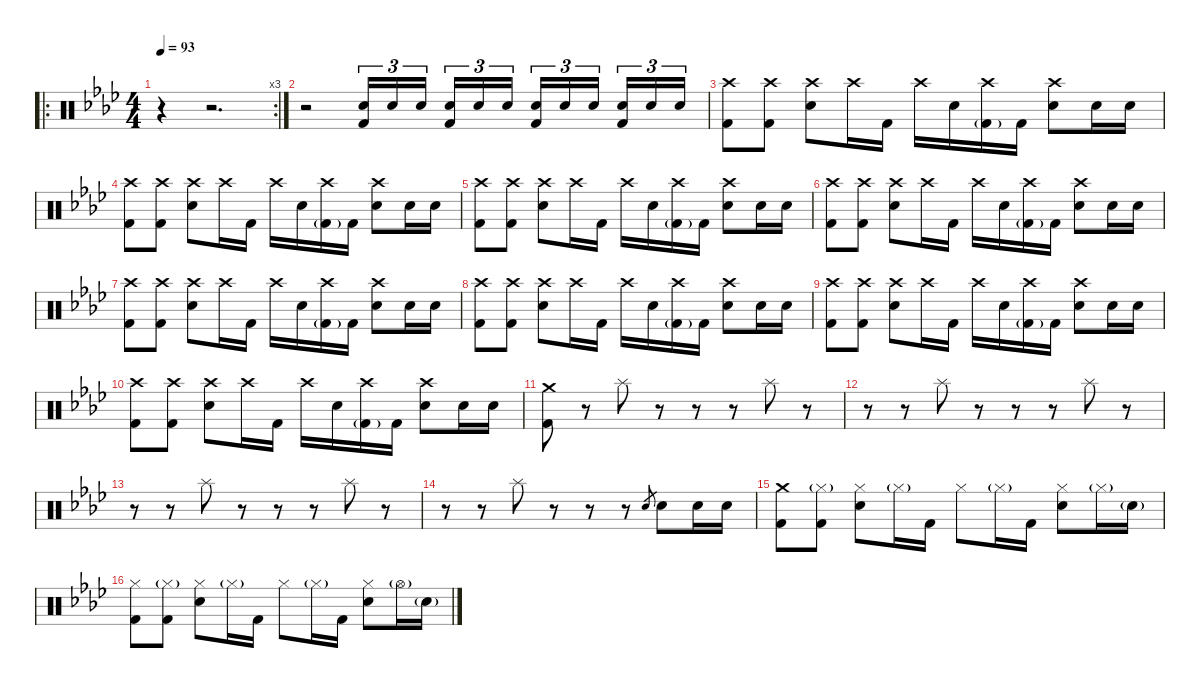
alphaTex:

\defaultSystemsLayout 4
\hideDynamics
\bracketExtendMode nobrackets
\singleTrackTrackNamePolicy hidden
\multiTrackTrackNamePolicy hidden
\firstSystemTrackNameMode fullname
\firstSystemTrackNameOrientation horizontal
\otherSystemsTrackNameOrientation horizontal
\track ("Drums" "drm.") {instrument percussion}
\staff {score}
\articulation defaults
\ro
\rc 3
\ts (4 4)
\beaming (8 2 2 2 2)
\tempo 93
\clef neutral
\ks ab
r.4{dy f beam Down} r.2{d beam Down} |
r.2{beam Down} ("Snare (hit) 2"{acc forcenatural} "Kick (hit) 2"{acc forcenatural}).16{tu (3 2) beam Up} "Snare (hit) 2"{acc forcenatural}.16{tu (3 2) beam Up} "Snare (hit) 2"{acc forcenatural}.16{tu (3 2) beam Up} ("Snare (hit) 2"{acc forcenatural} "Kick (hit) 2"{acc forcenatural}).16{tu (3 2) beam Up} "Snare (hit) 2"{acc forcenatural}.16{tu (3 2) beam Up} "Snare (hit) 2"{acc forcenatural}.16{tu (3 2) beam Up} ("Snare (hit) 2"{acc forcenatural} "Kick (hit) 2"{acc forcenatural}).16{tu (3 2) beam Up} "Snare (hit) 2"{acc forcenatural}.16{tu (3 2) beam Up} "Snare (hit) 2"{acc forcenatural}.16{tu (3 2) beam Up} ("Snare (hit) 2"{acc forcenatural} "Kick (hit) 2"{acc forcenatural}).16{tu (3 2) beam Up} "Snare (hit) 2"{acc forcenatural}.16{tu (3 2) beam Up} "Snare (hit) 2"{acc forcenatural}.16{tu (3 2) beam Up} |
("Crash high (hit)"{acc forcenatural} "Kick (hit) 2"{acc forcenatural}).8{beam Down} ("Crash high (hit)"{acc forcenatural} "Kick (hit) 2"{acc forcenatural}).8{beam Down} ("Crash high (hit)"{acc forcenatural} "Snare (hit) 2"{acc forcenatural}).8{beam Down} "Crash high (hit)"{acc forcenatural}.16{beam Down} "Kick (hit) 2"{acc forcenatural}.16{beam Down} "Crash high (hit)"{acc forcenatural}.16{beam Down} "Snare (hit) 2"{acc forcenatural}.16{beam Down} ("Crash high (hit)"{acc forcenatural} "Kick (hit) 2"{g acc forcenatural}).16{beam Down} "Kick (hit) 2"{acc forcenatural}.16{beam Down} ("Crash high (hit)"{acc forcenatural} "Snare (hit) 2"{acc forcenatural}).8{beam Down} "Snare (hit) 2"{acc forcenatural}.16{beam Down} "Snare (hit) 2"{acc forcenatural}.16{beam Down} |
("Crash high (hit)"{acc forcenatural} "Kick (hit) 2"{acc forcenatural}).8{beam Down} ("Crash high (hit)"{acc forcenatural} "Kick (hit) 2"{acc forcenatural}).8{beam Down} ("Crash high (hit)"{acc forcenatural} "Snare (hit) 2"{acc forcenatural}).8{beam Down} "Crash high (hit)"{acc forcenatural}.16{beam Down} "Kick (hit) 2"{acc forcenatural}.16{beam Down} "Crash high (hit)"{acc forcenatural}.16{beam Down} "Snare (hit) 2"{acc forcenatural}.16{beam Down} ("Crash high (hit)"{acc forcenatural} "Kick (hit) 2"{g acc forcenatural}).16{beam Down} "Kick (hit) 2"{acc forcenatural}.16{beam Down} ("Crash high (hit)"{acc forcenatural} "Snare (hit) 2"{acc forcenatural}).8{beam Down} "Snare (hit) 2"{acc forcenatural}.16{beam Down} "Snare (hit) 2"{acc forcenatural}.16{beam Down} |
("Crash high (hit)"{acc forcenatural} "Kick (hit) 2"{acc forcenatural}).8{beam Down} ("Crash high (hit)"{acc forcenatural} "Kick (hit) 2"{acc forcenatural}).8{beam Down} ("Crash high (hit)"{acc forcenatural} "Snare (hit) 2"{acc forcenatural}).8{beam Down} "Crash high (hit)"{acc forcenatural}.16{beam Down} "Kick (hit) 2"{acc forcenatural}.16{beam Down} "Crash high (hit)"{acc forcenatural}.16{beam Down} "Snare (hit) 2"{acc forcenatural}.16{beam Down} ("Crash high (hit)"{acc forcenatural} "Kick (hit) 2"{g acc forcenatural}).16{beam Down} "Kick (hit) 2"{acc forcenatural}.16{beam Down} ("Crash high (hit)"{acc forcenatural} "Snare (hit) 2"{acc forcenatural}).8{beam Down} "Snare (hit) 2"{acc forcenatural}.16{beam Down} "Snare (hit) 2"{acc forcenatural}.16{beam Down} |
("Crash high (hit)"{acc forcenatural} "Kick (hit) 2"{acc forcenatural}).8{beam Down} ("Crash high (hit)"{acc forcenatural} "Kick (hit) 2"{acc forcenatural}).8{beam Down} ("Crash high (hit)"{acc forcenatural} "Snare (hit) 2"{acc forcenatural}).8{beam Down} "Crash high (hit)"{acc forcenatural}.16{beam Down} "Kick (hit) 2"{acc forcenatural}.16{beam Down} "Crash high (hit)"{acc forcenatural}.16{beam Down} "Snare (hit) 2"{acc forcenatural}.16{beam Down} ("Crash high (hit)"{acc forcenatural} "Kick (hit) 2"{g acc forcenatural}).16{beam Down} "Kick (hit) 2"{acc forcenatural}.16{beam Down} ("Crash high (hit)"{acc forcenatural} "Snare (hit) 2"{acc forcenatural}).8{beam Down} "Snare (hit) 2"{acc forcenatural}.16{beam Down} "Snare (hit) 2"{acc forcenatural}.16{beam Down} |
("Crash high (hit)"{acc forcenatural} "Kick (hit) 2"{acc forcenatural}).8{beam Down} ("Crash high (hit)"{acc forcenatural} "Kick (hit) 2"{acc forcenatural}).8{beam Down} ("Crash high (hit)"{acc forcenatural} "Snare (hit) 2"{acc forcenatural}).8{beam Down} "Crash high (hit)"{acc forcenatural}.16{beam Down} "Kick (hit) 2"{acc forcenatural}.16{beam Down} "Crash high (hit)"{acc forcenatural}.16{beam Down} "Snare (hit) 2"{acc forcenatural}.16{beam Down} ("Crash high (hit)"{acc forcenatural} "Kick (hit) 2"{g acc forcenatural}).16{beam Down} "Kick (hit) 2"{acc forcenatural}.16{beam Down} ("Crash high (hit)"{acc forcenatural} "Snare (hit) 2"{acc forcenatural}).8{beam Down} "Snare (hit) 2"{acc forcenatural}.16{beam Down} "Snare (hit) 2"{acc forcenatural}.16{beam Down} |
("Crash high (hit)"{acc forcenatural} "Kick (hit) 2"{acc forcenatural}).8{beam Down} ("Crash high (hit)"{acc forcenatural} "Kick (hit) 2"{acc forcenatural}).8{beam Down} ("Crash high (hit)"{acc forcenatural} "Snare (hit) 2"{acc forcenatural}).8{beam Down} "Crash high (hit)"{acc forcenatural}.16{beam Down} "Kick (hit) 2"{acc forcenatural}.16{beam Down} "Crash high (hit)"{acc forcenatural}.16{beam Down} "Snare (hit) 2"{acc forcenatural}.16{beam Down} ("Crash high (hit)"{acc forcenatural} "Kick (hit) 2"{g acc forcenatural}).16{beam Down} "Kick (hit) 2"{acc forcenatural}.16{beam Down} ("Crash high (hit)"{acc forcenatural} "Snare (hit) 2"{acc forcenatural}).8{beam Down} "Snare (hit) 2"{acc forcenatural}.16{beam Down} "Snare (hit) 2"{acc forcenatural}.16{beam Down} |
("Crash high (hit)"{acc forcenatural} "Kick (hit) 2"{acc forcenatural}).8{beam Down} ("Crash high (hit)"{acc forcenatural} "Kick (hit) 2"{acc forcenatural}).8{beam Down} ("Crash high (hit)"{acc forcenatural} "Snare (hit) 2"{acc forcenatural}).8{beam Down} "Crash high (hit)"{acc forcenatural}.16{beam Down} "Kick (hit) 2"{acc forcenatural}.16{beam Down} "Crash high (hit)"{acc forcenatural}.16{beam Down} "Snare (hit) 2"{acc forcenatural}.16{beam Down} ("Crash high (hit)"{acc forcenatural} "Kick (hit) 2"{g acc forcenatural}).16{beam Down} "Kick (hit) 2"{acc forcenatural}.16{beam Down} ("Crash high (hit)"{acc forcenatural} "Snare (hit) 2"{acc forcenatural}).8{beam Down} "Snare (hit) 2"{acc forcenatural}.16{beam Down} "Snare (hit) 2"{acc forcenatural}.16{beam Down} |
("Crash high (hit)"{acc forcenatural} "Kick (hit) 2"{acc forcenatural}).8{beam Down} ("Crash high (hit)"{acc forcenatural} "Kick (hit) 2"{acc forcenatural}).8{beam Down} ("Crash high (hit)"{acc forcenatural} "Snare (hit) 2"{acc forcenatural}).8{beam Down} "Crash high (hit)"{acc forcenatural}.16{beam Down} "Kick (hit) 2"{acc forcenatural}.16{beam Down} "Crash high (hit)"{acc forcenatural}.16{beam Down} "Snare (hit) 2"{acc forcenatural}.16{beam Down} ("Crash high (hit)"{acc forcenatural} "Kick (hit) 2"{g acc forcenatural}).16{beam Down} "Kick (hit) 2"{acc forcenatural}.16{beam Down} ("Crash high (hit)"{acc forcenatural} "Snare (hit) 2"{acc forcenatural}).8{beam Down} "Snare (hit) 2"{acc forcenatural}.16{beam Down} "Snare (hit) 2"{acc forcenatural}.16{beam Down} |
("Crash medium (hit)"{acc forcenatural} "Kick (hit) 2"{acc forcenatural}).8{beam Down} r.8{beam Down} "Splash (hit)"{acc forcenatural}.8{beam Down} r.8{beam Down} r.8{beam Down} r.8{beam Down} "Splash (hit)"{acc forcenatural}.8{beam Down} r.8{beam Down} |
r.8{beam Down} r.8{beam Down} "Splash (hit)"{acc forcenatural}.8{beam Down} r.8{beam Down} r.8{beam Down} r.8{beam Down} "Splash (hit)"{acc forcenatural}.8{beam Down} r.8{beam Down} |
r.8{beam Down} r.8{beam Down} "Splash (hit)"{acc forcenatural}.8{beam Down} r.8{beam Down} r.8{beam Down} r.8{beam Down} "Splash (hit)"{acc forcenatural}.8{beam Down} r.8{beam Down} |
r.8{beam Down} r.8{beam Down} "Splash (hit)"{acc forcenatural}.8{beam Down} r.8{beam Down} r.8{beam Down} r.8{beam Down} "Electric Snare (hit)"{acc forcenatural}.8{gr dy mf beam Up} "Snare (hit) 2"{acc forcenatural}.8{dy f beam Down} "Snare (hit) 2"{acc forcenatural}.16{beam Down} "Snare (hit) 2"{acc forcenatural}.16{beam Down} |
("Crash medium (hit)"{acc forcenatural} "Kick (hit) 2"{acc forcenatural}).8{beam Down} ("Hi-Hat (closed)"{g acc forcenatural} "Kick (hit) 2"{acc forcenatural}).8{beam Down} ("Hi-Hat (closed)"{acc forcenatural} "Snare (hit) 2"{acc forcenatural}).8{beam Down} "Hi-Hat (closed)"{g acc forcenatural}.16{dy mf beam Down} "Kick (hit) 2"{acc forcenatural}.16{dy f beam Down} "Hi-Hat (closed)"{acc forcenatural}.8{beam Down} "Hi-Hat (closed)"{g acc forcenatural}.16{dy mf beam Down} "Kick (hit) 2"{acc forcenatural}.16{dy f beam Down} ("Hi-Hat (closed)"{acc forcenatural} "Snare (hit) 2"{acc forcenatural}).8{beam Down} "Hi-Hat (closed)"{g acc forcenatural}.16{dy mf beam Down} "Snare (hit) 2"{g acc forcenatural}.16{beam Down} |
("Hi-Hat (closed)"{acc forcenatural} "Kick (hit) 2"{acc forcenatural}).8{dy f beam Down} ("Hi-Hat (closed)"{g acc forcenatural} "Kick (hit) 2"{acc forcenatural}).8{beam Down} ("Hi-Hat (closed)"{acc forcenatural} "Snare (hit) 2"{acc forcenatural}).8{beam Down} "Hi-Hat (closed)"{g acc forcenatural}.16{dy mf beam Down} "Kick (hit) 2"{acc forcenatural}.16{dy f beam Down} "Hi-Hat (closed)"{acc forcenatural}.8{beam Down} "Hi-Hat (closed)"{g acc forcenatural}.16{dy mf beam Down} "Kick (hit) 2"{acc forcenatural}.16{dy f beam Down} ("Hi-Hat (closed)"{acc forcenatural} "Snare (hit) 2"{acc forcenatural}).8{beam Down} "Hi-Hat (open)"{g acc forcenatural}.16{dy mf beam Down} "Snare (hit) 2"{g acc forcenatural}.16{beam Down}
